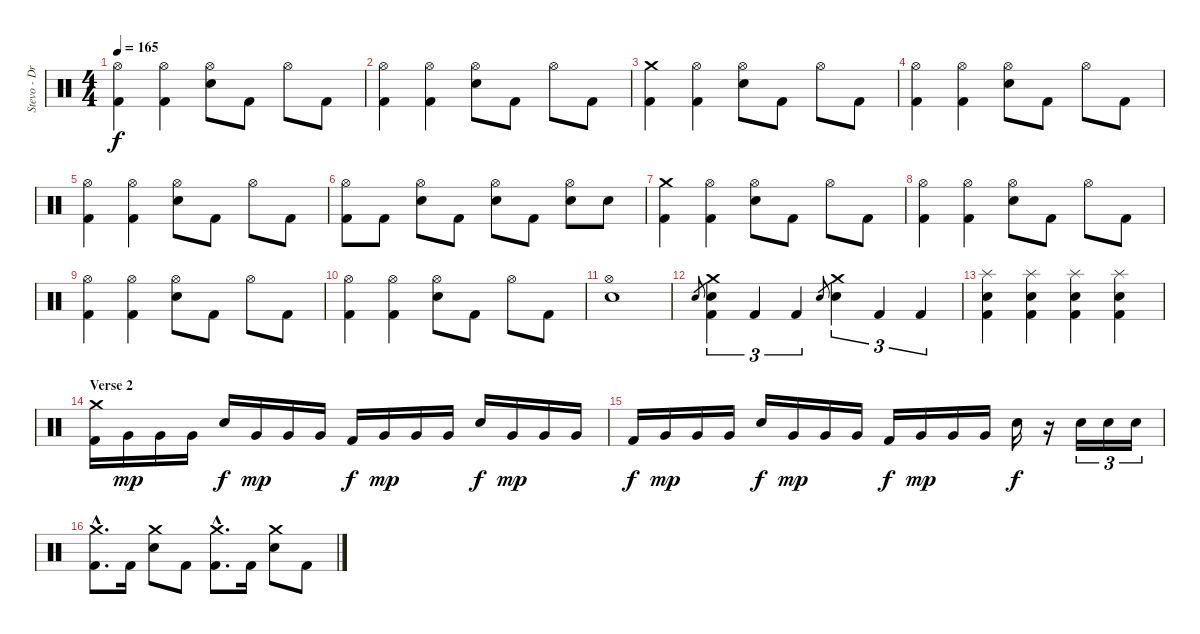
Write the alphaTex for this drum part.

\track ("Stevo - Drums" "Stevo - Dr") {instrument percussion}
\staff {score}
\articulation defaults
\ts (4 4)
\tempo 165
\clef neutral
\ks c
("Hi-Hat (open)" "Kick (hit) 2").4{dy f} ("Hi-Hat (open)" "Kick (hit) 2").4 ("Electric Snare (hit)" "Hi-Hat (open)").8 "Kick (hit) 2".8 "Hi-Hat (open)".8 "Kick (hit) 2".8 |
("Hi-Hat (open)" "Kick (hit) 2").4 ("Hi-Hat (open)" "Kick (hit) 2").4 ("Electric Snare (hit)" "Hi-Hat (open)").8 "Kick (hit) 2".8 "Hi-Hat (open)".8 "Kick (hit) 2".8 |
("Crash medium (hit)" "Kick (hit) 2").4 ("Hi-Hat (open)" "Kick (hit) 2").4 ("Electric Snare (hit)" "Hi-Hat (open)").8 "Kick (hit) 2".8 "Hi-Hat (open)".8 "Kick (hit) 2".8 |
("Hi-Hat (open)" "Kick (hit) 2").4 ("Hi-Hat (open)" "Kick (hit) 2").4 ("Electric Snare (hit)" "Hi-Hat (open)").8 "Kick (hit) 2".8 "Hi-Hat (open)".8 "Kick (hit) 2".8 |
("Hi-Hat (open)" "Kick (hit) 2").4 ("Hi-Hat (open)" "Kick (hit) 2").4 ("Electric Snare (hit)" "Hi-Hat (open)").8 "Kick (hit) 2".8 "Hi-Hat (open)".8 "Kick (hit) 2".8 |
("Hi-Hat (open)" "Kick (hit) 2").8 "Kick (hit) 2".8 ("Hi-Hat (open)" "Electric Snare (hit)").8 "Kick (hit) 2".8 ("Hi-Hat (open)" "Electric Snare (hit)").8 "Kick (hit) 2".8 ("Hi-Hat (open)" "Electric Snare (hit)").8 "Electric Snare (hit)".8 |
("Crash medium (hit)" "Kick (hit) 2").4 ("Hi-Hat (open)" "Kick (hit) 2").4 ("Electric Snare (hit)" "Hi-Hat (open)").8 "Kick (hit) 2".8 "Hi-Hat (open)".8 "Kick (hit) 2".8 |
("Hi-Hat (open)" "Kick (hit) 2").4 ("Hi-Hat (open)" "Kick (hit) 2").4 ("Electric Snare (hit)" "Hi-Hat (open)").8 "Kick (hit) 2".8 "Hi-Hat (open)".8 "Kick (hit) 2".8 |
("Hi-Hat (open)" "Kick (hit) 2").4 ("Hi-Hat (open)" "Kick (hit) 2").4 ("Electric Snare (hit)" "Hi-Hat (open)").8 "Kick (hit) 2".8 "Hi-Hat (open)".8 "Kick (hit) 2".8 |
("Hi-Hat (open)" "Kick (hit) 2").4 ("Hi-Hat (open)" "Kick (hit) 2").4 ("Electric Snare (hit)" "Hi-Hat (open)").8 "Kick (hit) 2".8 "Hi-Hat (open)".8 "Kick (hit) 2".8 |
("Electric Snare (hit)" "Hi-Hat (open)").1 |
"Electric Snare (hit)".8{gr} ("Crash medium (hit)" "Electric Snare (hit)" "Kick (hit) 2").4{tu (3 2)} "Kick (hit) 2".4{tu (3 2)} "Kick (hit) 2".4{tu (3 2)} "Electric Snare (hit)".8{gr} ("Crash medium (hit)" "Electric Snare (hit)").4{tu (3 2)} "Kick (hit) 2".4{tu (3 2)} "Kick (hit) 2".4{tu (3 2)} |
("Splash (hit)" "Electric Snare (hit)" "Kick (hit) 2").4 ("Splash (hit)" "Electric Snare (hit)" "Kick (hit) 2").4 ("Splash (hit)" "Electric Snare (hit)" "Kick (hit) 2").4 ("Splash (hit)" "Electric Snare (hit)" "Kick (hit) 2").4 |
\section ("" "Verse 2")
("Crash medium (hit)" "Kick (hit) 2").16 "Very Low Tom (hit)".16{dy mp} "Very Low Tom (hit)".16 "Very Low Tom (hit)".16 "Electric Snare (hit)".16{dy f} "Very Low Tom (hit)".16{dy mp} "Very Low Tom (hit)".16 "Very Low Tom (hit)".16 "Kick (hit) 2".16{dy f} "Very Low Tom (hit)".16{dy mp} "Very Low Tom (hit)".16 "Very Low Tom (hit)".16 "Electric Snare (hit)".16{dy f} "Very Low Tom (hit)".16{dy mp} "Very Low Tom (hit)".16 "Very Low Tom (hit)".16 |
"Kick (hit) 2".16{dy f} "Very Low Tom (hit)".16{dy mp} "Very Low Tom (hit)".16 "Very Low Tom (hit)".16 "Electric Snare (hit)".16{dy f} "Very Low Tom (hit)".16{dy mp} "Very Low Tom (hit)".16 "Very Low Tom (hit)".16 "Kick (hit) 2".16{dy f} "Very Low Tom (hit)".16{dy mp} "Very Low Tom (hit)".16 "Very Low Tom (hit)".16 "Electric Snare (hit)".16{dy f} r.16 "Electric Snare (hit)".16{tu (3 2)} "Electric Snare (hit)".16{tu (3 2)} "Electric Snare (hit)".16{tu (3 2)} |
("Crash medium (hit)"{hac} "Kick (hit) 2"{hac}).8{d} "Kick (hit) 2".16 ("Crash medium (hit)" "Electric Snare (hit)").8 "Kick (hit) 2".8 ("Crash medium (hit)"{hac} "Kick (hit) 2"{hac}).8{d} "Kick (hit) 2".16 ("Crash medium (hit)" "Electric Snare (hit)").8 "Kick (hit) 2".8
